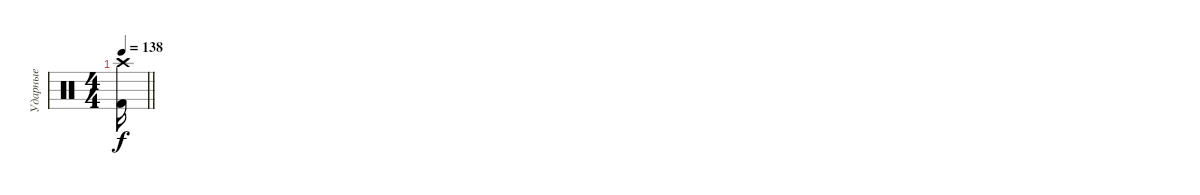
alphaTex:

\track ("Ударные" "Ударные") {instrument percussion}
\staff {score}
\articulation defaults
\ts (4 4)
\tempo 138
\clef neutral
\barLineRight lightlight
\ks c
("Crash high (hit)" "Kick (hit) 2").16{dy f}
